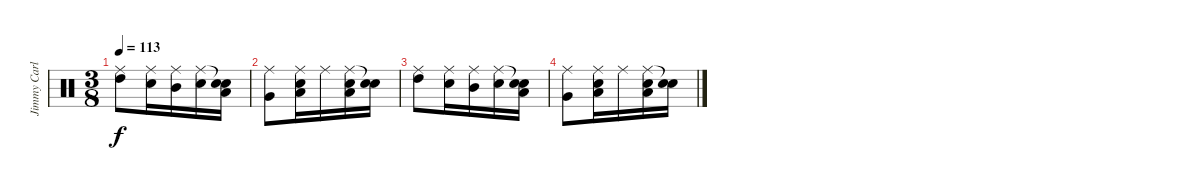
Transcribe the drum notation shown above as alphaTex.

\track ("Jimmy Carl Black" "Jimmy Carl") {instrument percussion}
\staff {score}
\articulation defaults
\ts (3 8)
\tempo 113
\clef neutral
\ks c
("Ride (middle)" "High Tom (hit)").8{dy f} ("Ride (middle)" "Snare (hit) 2").16 ("Ride (middle)" "Mid Tom (hit)").16 ("Ride (middle)" "Snare (hit) 2").16 ("Snare (hit)"{t} "Low Tom (hit)" "Snare (hit) 2").16 |
("Ride (middle)" "Very Low Tom (hit)").8 ("Ride (middle)" "Low Floor Tom (hit)" "Snare (hit) 2").16 "Ride (middle)".16 ("Ride (middle)" "Low Floor Tom (hit)" "Snare (hit) 2").16 ("Snare (hit)"{t} "Snare (hit) 2").16 |
("Ride (middle)" "High Tom (hit)").8 ("Ride (middle)" "Snare (hit) 2").16 ("Ride (middle)" "Mid Tom (hit)").16 ("Ride (middle)" "Snare (hit) 2").16 ("Snare (hit)"{t} "Low Tom (hit)" "Snare (hit) 2").16 |
("Ride (middle)" "Very Low Tom (hit)").8 ("Ride (middle)" "Low Floor Tom (hit)" "Snare (hit) 2").16 "Ride (middle)".16 ("Ride (middle)" "Low Floor Tom (hit)" "Snare (hit) 2").16 ("Snare (hit)"{t} "Snare (hit) 2").16
